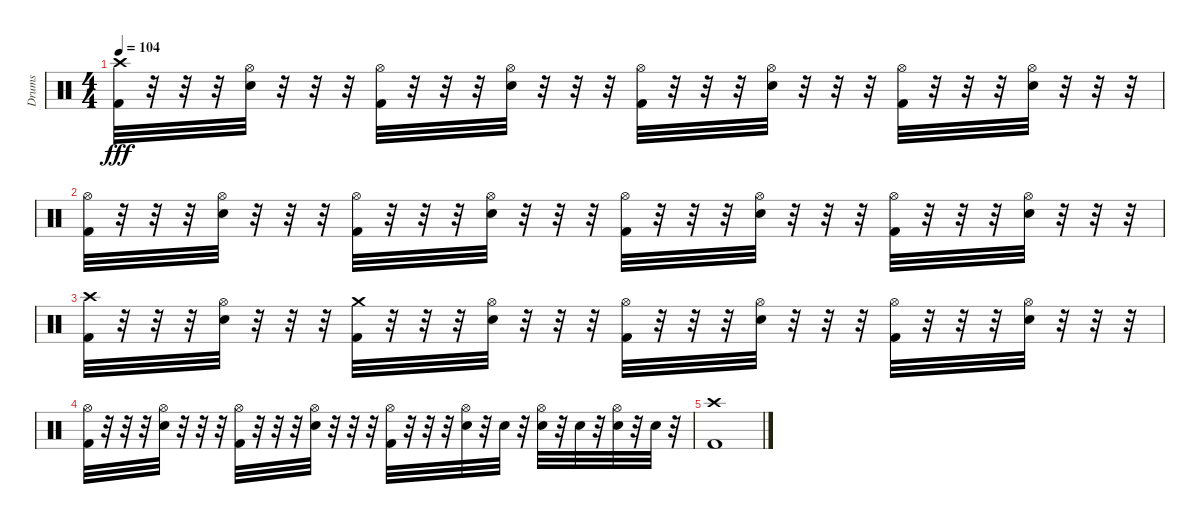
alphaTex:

\track ("Drums" "Drums") {instrument percussion}
\staff {score}
\articulation defaults
\ts (4 4)
\tempo 104
\clef neutral
\ks c
("Crash high (hit)" "Kick (hit) 2").32{dy fff} r.32 r.32 r.32 ("Hi-Hat (open)" "Snare (hit) 2").32 r.32 r.32 r.32 ("Hi-Hat (open)" "Kick (hit) 2").32 r.32 r.32 r.32 ("Hi-Hat (open)" "Snare (hit) 2").32 r.32 r.32 r.32 ("Hi-Hat (open)" "Kick (hit) 2").32 r.32 r.32 r.32 ("Hi-Hat (open)" "Snare (hit) 2").32 r.32 r.32 r.32 ("Hi-Hat (open)" "Kick (hit) 2").32 r.32 r.32 r.32 ("Hi-Hat (open)" "Snare (hit) 2").32 r.32 r.32 r.32 |
("Hi-Hat (open)" "Kick (hit) 2").32 r.32 r.32 r.32 ("Hi-Hat (open)" "Snare (hit) 2").32 r.32 r.32 r.32 ("Hi-Hat (open)" "Kick (hit) 2").32 r.32 r.32 r.32 ("Hi-Hat (open)" "Snare (hit) 2").32 r.32 r.32 r.32 ("Hi-Hat (open)" "Kick (hit) 2").32 r.32 r.32 r.32 ("Hi-Hat (open)" "Snare (hit) 2").32 r.32 r.32 r.32 ("Hi-Hat (open)" "Kick (hit) 2").32 r.32 r.32 r.32 ("Hi-Hat (open)" "Snare (hit) 2").32 r.32 r.32 r.32 |
("Crash high (hit)" "Kick (hit) 2").32 r.32 r.32 r.32 ("Hi-Hat (open)" "Snare (hit) 2").32 r.32 r.32 r.32 ("Crash medium (hit)" "Kick (hit) 2").32 r.32 r.32 r.32 ("Hi-Hat (open)" "Snare (hit) 2").32 r.32 r.32 r.32 ("Hi-Hat (open)" "Kick (hit) 2").32 r.32 r.32 r.32 ("Hi-Hat (open)" "Snare (hit) 2").32 r.32 r.32 r.32 ("Hi-Hat (open)" "Kick (hit) 2").32 r.32 r.32 r.32 ("Hi-Hat (open)" "Snare (hit) 2").32 r.32 r.32 r.32 |
("Hi-Hat (open)" "Kick (hit) 2").32 r.32 r.32 r.32 ("Hi-Hat (open)" "Snare (hit) 2").32 r.32 r.32 r.32 ("Hi-Hat (open)" "Kick (hit) 2").32 r.32 r.32 r.32 ("Hi-Hat (open)" "Snare (hit) 2").32 r.32 r.32 r.32 ("Hi-Hat (open)" "Kick (hit) 2").32 r.32 r.32 r.32 ("Hi-Hat (open)" "Snare (hit) 2").32 r.32 "Snare (hit) 2".32 r.32 ("Hi-Hat (open)" "Snare (hit) 2").32 r.32 "Snare (hit) 2".32 r.32 ("Hi-Hat (open)" "Snare (hit) 2").32 r.32 "Snare (hit) 2".32 r.32 |
("Crash high (hit)" "Kick (hit) 2").1
